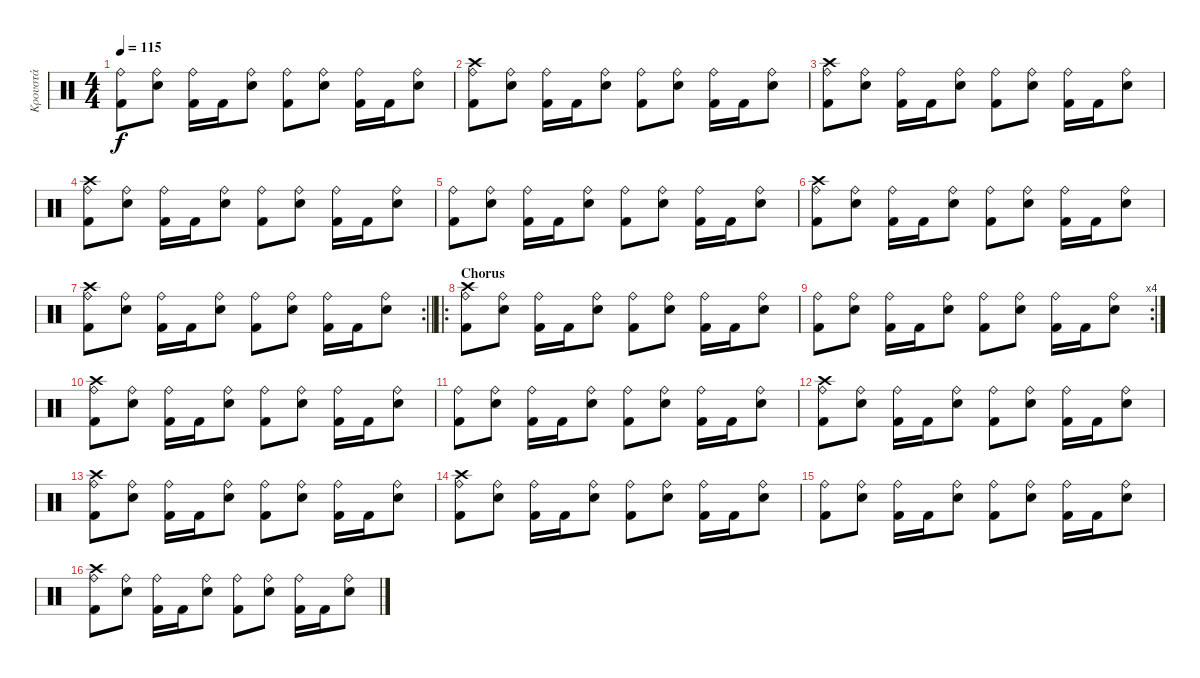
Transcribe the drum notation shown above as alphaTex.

\track ("Κρουστά" "Κρουστά") {instrument percussion}
\staff {score}
\articulation defaults
\ts (4 4)
\tempo 115
\clef neutral
\ks c
("Ride (bell)" "Kick (hit) 2").8{dy f} ("Ride (bell)" "Snare (hit) 2").8 ("Ride (bell)" "Kick (hit) 2").16 "Kick (hit) 2".16 ("Ride (bell)" "Snare (hit) 2").8 ("Ride (bell)" "Kick (hit) 2").8 ("Ride (bell)" "Snare (hit) 2").8 ("Ride (bell)" "Kick (hit) 2").16 "Kick (hit) 2".16 ("Ride (bell)" "Snare (hit) 2").8 |
("Crash high (hit)" "Ride (bell)" "Kick (hit) 2").8 ("Ride (bell)" "Snare (hit) 2").8 ("Ride (bell)" "Kick (hit) 2").16 "Kick (hit) 2".16 ("Ride (bell)" "Snare (hit) 2").8 ("Ride (bell)" "Kick (hit) 2").8 ("Ride (bell)" "Snare (hit) 2").8 ("Ride (bell)" "Kick (hit) 2").16 "Kick (hit) 2".16 ("Ride (bell)" "Snare (hit) 2").8 |
("Crash high (hit)" "Ride (bell)" "Kick (hit) 2").8 ("Ride (bell)" "Snare (hit) 2").8 ("Ride (bell)" "Kick (hit) 2").16 "Kick (hit) 2".16 ("Ride (bell)" "Snare (hit) 2").8 ("Ride (bell)" "Kick (hit) 2").8 ("Ride (bell)" "Snare (hit) 2").8 ("Ride (bell)" "Kick (hit) 2").16 "Kick (hit) 2".16 ("Ride (bell)" "Snare (hit) 2").8 |
("Crash high (hit)" "Ride (bell)" "Kick (hit) 2").8 ("Ride (bell)" "Snare (hit) 2").8 ("Ride (bell)" "Kick (hit) 2").16 "Kick (hit) 2".16 ("Ride (bell)" "Snare (hit) 2").8 ("Ride (bell)" "Kick (hit) 2").8 ("Ride (bell)" "Snare (hit) 2").8 ("Ride (bell)" "Kick (hit) 2").16 "Kick (hit) 2".16 ("Ride (bell)" "Snare (hit) 2").8 |
("Ride (bell)" "Kick (hit) 2").8 ("Ride (bell)" "Snare (hit) 2").8 ("Ride (bell)" "Kick (hit) 2").16 "Kick (hit) 2".16 ("Ride (bell)" "Snare (hit) 2").8 ("Ride (bell)" "Kick (hit) 2").8 ("Ride (bell)" "Snare (hit) 2").8 ("Ride (bell)" "Kick (hit) 2").16 "Kick (hit) 2".16 ("Ride (bell)" "Snare (hit) 2").8 |
("Crash high (hit)" "Ride (bell)" "Kick (hit) 2").8 ("Ride (bell)" "Snare (hit) 2").8 ("Ride (bell)" "Kick (hit) 2").16 "Kick (hit) 2".16 ("Ride (bell)" "Snare (hit) 2").8 ("Ride (bell)" "Kick (hit) 2").8 ("Ride (bell)" "Snare (hit) 2").8 ("Ride (bell)" "Kick (hit) 2").16 "Kick (hit) 2".16 ("Ride (bell)" "Snare (hit) 2").8 |
\rc 2
\barLineRight lightlight
("Crash high (hit)" "Ride (bell)" "Kick (hit) 2").8 ("Ride (bell)" "Snare (hit) 2").8 ("Ride (bell)" "Kick (hit) 2").16 "Kick (hit) 2".16 ("Ride (bell)" "Snare (hit) 2").8 ("Ride (bell)" "Kick (hit) 2").8 ("Ride (bell)" "Snare (hit) 2").8 ("Ride (bell)" "Kick (hit) 2").16 "Kick (hit) 2".16 ("Ride (bell)" "Snare (hit) 2").8 |
\ro
\section ("" "Chorus")
("Crash high (hit)" "Ride (bell)" "Kick (hit) 2").8 ("Ride (bell)" "Snare (hit) 2").8 ("Ride (bell)" "Kick (hit) 2").16 "Kick (hit) 2".16 ("Ride (bell)" "Snare (hit) 2").8 ("Ride (bell)" "Kick (hit) 2").8 ("Ride (bell)" "Snare (hit) 2").8 ("Ride (bell)" "Kick (hit) 2").16 "Kick (hit) 2".16 ("Ride (bell)" "Snare (hit) 2").8 |
\rc 4
("Ride (bell)" "Kick (hit) 2").8 ("Ride (bell)" "Snare (hit) 2").8 ("Ride (bell)" "Kick (hit) 2").16 "Kick (hit) 2".16 ("Ride (bell)" "Snare (hit) 2").8 ("Ride (bell)" "Kick (hit) 2").8 ("Ride (bell)" "Snare (hit) 2").8 ("Ride (bell)" "Kick (hit) 2").16 "Kick (hit) 2".16 ("Ride (bell)" "Snare (hit) 2").8 |
("Crash high (hit)" "Ride (bell)" "Kick (hit) 2").8 ("Ride (bell)" "Snare (hit) 2").8 ("Ride (bell)" "Kick (hit) 2").16 "Kick (hit) 2".16 ("Ride (bell)" "Snare (hit) 2").8 ("Ride (bell)" "Kick (hit) 2").8 ("Ride (bell)" "Snare (hit) 2").8 ("Ride (bell)" "Kick (hit) 2").16 "Kick (hit) 2".16 ("Ride (bell)" "Snare (hit) 2").8 |
("Ride (bell)" "Kick (hit) 2").8 ("Ride (bell)" "Snare (hit) 2").8 ("Ride (bell)" "Kick (hit) 2").16 "Kick (hit) 2".16 ("Ride (bell)" "Snare (hit) 2").8 ("Ride (bell)" "Kick (hit) 2").8 ("Ride (bell)" "Snare (hit) 2").8 ("Ride (bell)" "Kick (hit) 2").16 "Kick (hit) 2".16 ("Ride (bell)" "Snare (hit) 2").8 |
("Crash high (hit)" "Ride (bell)" "Kick (hit) 2").8 ("Ride (bell)" "Snare (hit) 2").8 ("Ride (bell)" "Kick (hit) 2").16 "Kick (hit) 2".16 ("Ride (bell)" "Snare (hit) 2").8 ("Ride (bell)" "Kick (hit) 2").8 ("Ride (bell)" "Snare (hit) 2").8 ("Ride (bell)" "Kick (hit) 2").16 "Kick (hit) 2".16 ("Ride (bell)" "Snare (hit) 2").8 |
("Crash high (hit)" "Ride (bell)" "Kick (hit) 2").8 ("Ride (bell)" "Snare (hit) 2").8 ("Ride (bell)" "Kick (hit) 2").16 "Kick (hit) 2".16 ("Ride (bell)" "Snare (hit) 2").8 ("Ride (bell)" "Kick (hit) 2").8 ("Ride (bell)" "Snare (hit) 2").8 ("Ride (bell)" "Kick (hit) 2").16 "Kick (hit) 2".16 ("Ride (bell)" "Snare (hit) 2").8 |
("Crash high (hit)" "Ride (bell)" "Kick (hit) 2").8 ("Ride (bell)" "Snare (hit) 2").8 ("Ride (bell)" "Kick (hit) 2").16 "Kick (hit) 2".16 ("Ride (bell)" "Snare (hit) 2").8 ("Ride (bell)" "Kick (hit) 2").8 ("Ride (bell)" "Snare (hit) 2").8 ("Ride (bell)" "Kick (hit) 2").16 "Kick (hit) 2".16 ("Ride (bell)" "Snare (hit) 2").8 |
("Ride (bell)" "Kick (hit) 2").8 ("Ride (bell)" "Snare (hit) 2").8 ("Ride (bell)" "Kick (hit) 2").16 "Kick (hit) 2".16 ("Ride (bell)" "Snare (hit) 2").8 ("Ride (bell)" "Kick (hit) 2").8 ("Ride (bell)" "Snare (hit) 2").8 ("Ride (bell)" "Kick (hit) 2").16 "Kick (hit) 2".16 ("Ride (bell)" "Snare (hit) 2").8 |
("Crash high (hit)" "Ride (bell)" "Kick (hit) 2").8 ("Ride (bell)" "Snare (hit) 2").8 ("Ride (bell)" "Kick (hit) 2").16 "Kick (hit) 2".16 ("Ride (bell)" "Snare (hit) 2").8 ("Ride (bell)" "Kick (hit) 2").8 ("Ride (bell)" "Snare (hit) 2").8 ("Ride (bell)" "Kick (hit) 2").16 "Kick (hit) 2".16 ("Ride (bell)" "Snare (hit) 2").8
